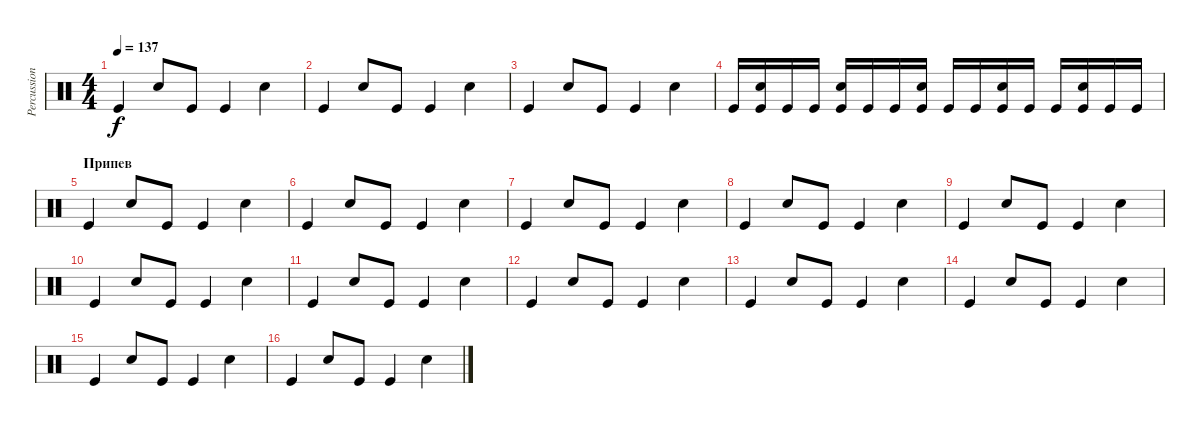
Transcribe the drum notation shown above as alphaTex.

\track ("Percussion" "Percussion") {instrument percussion}
\staff {score}
\articulation defaults
\ts (4 4)
\tempo 137
\clef neutral
\ks c "Kick (hit)".4{dy f} "Snare (hit) 2".8 "Kick (hit)".8 "Kick (hit)".4 "Snare (hit) 2".4
|
"Kick (hit)".4 "Snare (hit) 2".8 "Kick (hit)".8 "Kick (hit)".4 "Snare (hit) 2".4 |
"Kick (hit)".4 "Snare (hit) 2".8 "Kick (hit)".8 "Kick (hit)".4 "Snare (hit) 2".4 |
"Kick (hit)".16 ("Snare (hit) 2" "Kick (hit)").16 "Kick (hit)".16 "Kick (hit)".16 ("Snare (hit) 2" "Kick (hit)").16 "Kick (hit)".16 "Kick (hit)".16 ("Snare (hit) 2" "Kick (hit)").16 "Kick (hit)".16 "Kick (hit)".16 ("Snare (hit) 2" "Kick (hit)").16 "Kick (hit)".16 "Kick (hit)".16 ("Snare (hit) 2" "Kick (hit)").16 "Kick (hit)".16 "Kick (hit)".16 |
\section ("" "Припев")
"Kick (hit)".4 "Snare (hit) 2".8 "Kick (hit)".8 "Kick (hit)".4 "Snare (hit) 2".4 |
"Kick (hit)".4 "Snare (hit) 2".8 "Kick (hit)".8 "Kick (hit)".4 "Snare (hit) 2".4 |
"Kick (hit)".4 "Snare (hit) 2".8 "Kick (hit)".8 "Kick (hit)".4 "Snare (hit) 2".4 |
"Kick (hit)".4 "Snare (hit) 2".8 "Kick (hit)".8 "Kick (hit)".4 "Snare (hit) 2".4 |
"Kick (hit)".4 "Snare (hit) 2".8 "Kick (hit)".8 "Kick (hit)".4 "Snare (hit) 2".4 |
"Kick (hit)".4 "Snare (hit) 2".8 "Kick (hit)".8 "Kick (hit)".4 "Snare (hit) 2".4 |
"Kick (hit)".4 "Snare (hit) 2".8 "Kick (hit)".8 "Kick (hit)".4 "Snare (hit) 2".4 |
"Kick (hit)".4 "Snare (hit) 2".8 "Kick (hit)".8 "Kick (hit)".4 "Snare (hit) 2".4 |
"Kick (hit)".4 "Snare (hit) 2".8 "Kick (hit)".8 "Kick (hit)".4 "Snare (hit) 2".4 |
"Kick (hit)".4 "Snare (hit) 2".8 "Kick (hit)".8 "Kick (hit)".4 "Snare (hit) 2".4 |
"Kick (hit)".4 "Snare (hit) 2".8 "Kick (hit)".8 "Kick (hit)".4 "Snare (hit) 2".4 |
"Kick (hit)".4 "Snare (hit) 2".8 "Kick (hit)".8 "Kick (hit)".4 "Snare (hit) 2".4
